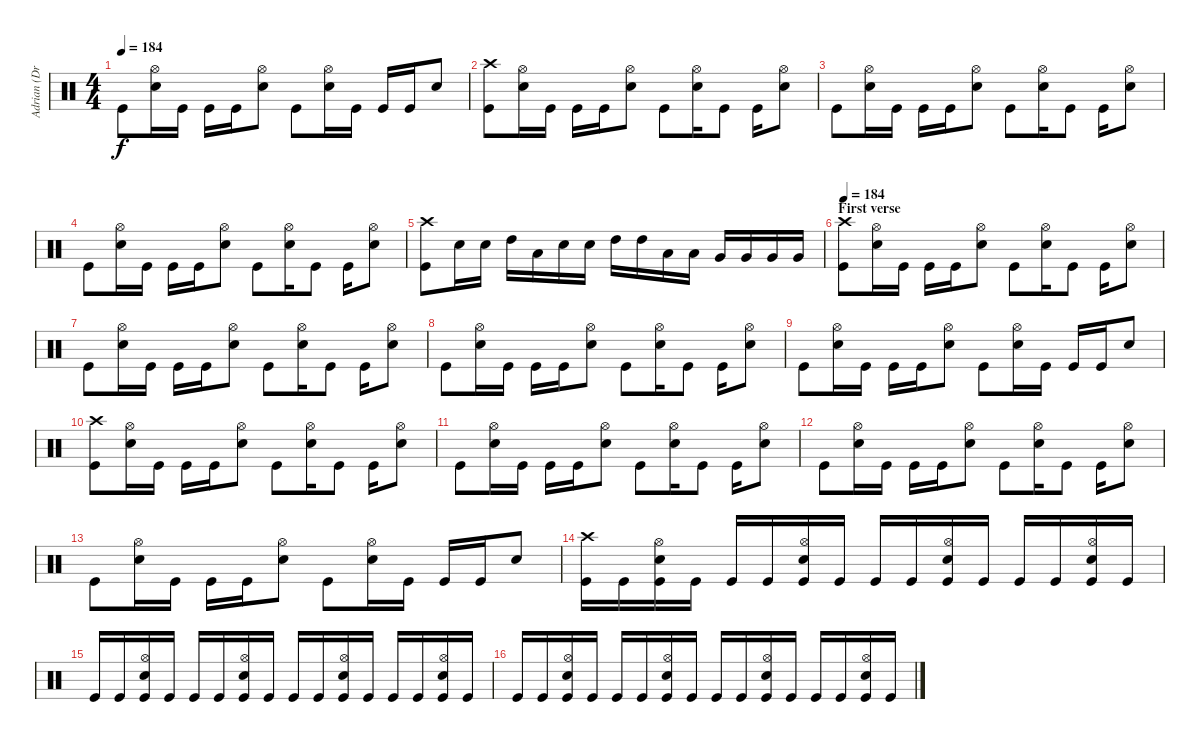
\track ("Adrian (Drums)" "Adrian (Dr") {instrument percussion}
\staff {score}
\articulation defaults
\ts (4 4)
\tempo 184
\clef neutral
\ks c "Kick (hit)".8{dy f}
("Hi-Hat (open)" "Electric Snare (hit)").16 "Kick (hit)".16 "Kick (hit)".16 "Kick (hit)".16 ("Hi-Hat (open)" "Electric Snare (hit)").8 "Kick (hit)".8 ("Hi-Hat (open)" "Electric Snare (hit)").16 "Kick (hit)".16 "Kick (hit)".16 "Kick (hit)".16 "Electric Snare (hit)".8 |
("Crash high (hit)" "Kick (hit)").8 ("Hi-Hat (open)" "Electric Snare (hit)").16 "Kick (hit)".16 "Kick (hit)".16 "Kick (hit)".16 ("Hi-Hat (open)" "Electric Snare (hit)").8 "Kick (hit)".8 ("Hi-Hat (open)" "Electric Snare (hit)").16 "Kick (hit)".8 "Kick (hit)".16 ("Hi-Hat (open)" "Electric Snare (hit)").8 |
"Kick (hit)".8 ("Hi-Hat (open)" "Electric Snare (hit)").16 "Kick (hit)".16 "Kick (hit)".16 "Kick (hit)".16 ("Hi-Hat (open)" "Electric Snare (hit)").8 "Kick (hit)".8 ("Hi-Hat (open)" "Electric Snare (hit)").16 "Kick (hit)".8 "Kick (hit)".16 ("Hi-Hat (open)" "Electric Snare (hit)").8 |
"Kick (hit)".8 ("Hi-Hat (open)" "Electric Snare (hit)").16 "Kick (hit)".16 "Kick (hit)".16 "Kick (hit)".16 ("Hi-Hat (open)" "Electric Snare (hit)").8 "Kick (hit)".8 ("Hi-Hat (open)" "Electric Snare (hit)").16 "Kick (hit)".8 "Kick (hit)".16 ("Hi-Hat (open)" "Electric Snare (hit)").8 |
("Crash high (hit)" "Kick (hit)").8 "Electric Snare (hit)".16 "Electric Snare (hit)".16 "High Tom (hit)".16 "Low Tom (hit)".16 "Electric Snare (hit)".16 "Electric Snare (hit)".16 "High Tom (hit)".16 "High Tom (hit)".16 "Low Tom (hit)".16 "Low Tom (hit)".16 "Very Low Tom (hit)".16 "Very Low Tom (hit)".16 "Very Low Tom (hit)".16 "Very Low Tom (hit)".16 |
\section ("" "First verse")
\tempo 184
("Crash high (hit)" "Kick (hit)").8 ("Hi-Hat (open)" "Electric Snare (hit)").16 "Kick (hit)".16 "Kick (hit)".16 "Kick (hit)".16 ("Hi-Hat (open)" "Electric Snare (hit)").8 "Kick (hit)".8 ("Hi-Hat (open)" "Electric Snare (hit)").16 "Kick (hit)".8 "Kick (hit)".16 ("Hi-Hat (open)" "Electric Snare (hit)").8 |
"Kick (hit)".8 ("Hi-Hat (open)" "Electric Snare (hit)").16 "Kick (hit)".16 "Kick (hit)".16 "Kick (hit)".16 ("Hi-Hat (open)" "Electric Snare (hit)").8 "Kick (hit)".8 ("Hi-Hat (open)" "Electric Snare (hit)").16 "Kick (hit)".8 "Kick (hit)".16 ("Hi-Hat (open)" "Electric Snare (hit)").8 |
"Kick (hit)".8 ("Hi-Hat (open)" "Electric Snare (hit)").16 "Kick (hit)".16 "Kick (hit)".16 "Kick (hit)".16 ("Hi-Hat (open)" "Electric Snare (hit)").8 "Kick (hit)".8 ("Hi-Hat (open)" "Electric Snare (hit)").16 "Kick (hit)".8 "Kick (hit)".16 ("Hi-Hat (open)" "Electric Snare (hit)").8 |
"Kick (hit)".8 ("Hi-Hat (open)" "Electric Snare (hit)").16 "Kick (hit)".16 "Kick (hit)".16 "Kick (hit)".16 ("Hi-Hat (open)" "Electric Snare (hit)").8 "Kick (hit)".8 ("Hi-Hat (open)" "Electric Snare (hit)").16 "Kick (hit)".16 "Kick (hit)".16 "Kick (hit)".16 "Electric Snare (hit)".8 |
("Crash high (hit)" "Kick (hit)").8 ("Hi-Hat (open)" "Electric Snare (hit)").16 "Kick (hit)".16 "Kick (hit)".16 "Kick (hit)".16 ("Hi-Hat (open)" "Electric Snare (hit)").8 "Kick (hit)".8 ("Hi-Hat (open)" "Electric Snare (hit)").16 "Kick (hit)".8 "Kick (hit)".16 ("Hi-Hat (open)" "Electric Snare (hit)").8 |
"Kick (hit)".8 ("Hi-Hat (open)" "Electric Snare (hit)").16 "Kick (hit)".16 "Kick (hit)".16 "Kick (hit)".16 ("Hi-Hat (open)" "Electric Snare (hit)").8 "Kick (hit)".8 ("Hi-Hat (open)" "Electric Snare (hit)").16 "Kick (hit)".8 "Kick (hit)".16 ("Hi-Hat (open)" "Electric Snare (hit)").8 |
"Kick (hit)".8 ("Hi-Hat (open)" "Electric Snare (hit)").16 "Kick (hit)".16 "Kick (hit)".16 "Kick (hit)".16 ("Hi-Hat (open)" "Electric Snare (hit)").8 "Kick (hit)".8 ("Hi-Hat (open)" "Electric Snare (hit)").16 "Kick (hit)".8 "Kick (hit)".16 ("Hi-Hat (open)" "Electric Snare (hit)").8 |
"Kick (hit)".8 ("Hi-Hat (open)" "Electric Snare (hit)").16 "Kick (hit)".16 "Kick (hit)".16 "Kick (hit)".16 ("Hi-Hat (open)" "Electric Snare (hit)").8 "Kick (hit)".8 ("Hi-Hat (open)" "Electric Snare (hit)").16 "Kick (hit)".16 "Kick (hit)".16 "Kick (hit)".16 "Electric Snare (hit)".8 |
("Crash high (hit)" "Kick (hit)").16 "Kick (hit)".16 ("Hi-Hat (open)" "Electric Snare (hit)" "Kick (hit)").16 "Kick (hit)".16 "Kick (hit)".16 "Kick (hit)".16 ("Hi-Hat (open)" "Electric Snare (hit)" "Kick (hit)").16 "Kick (hit)".16 "Kick (hit)".16 "Kick (hit)".16 ("Hi-Hat (open)" "Electric Snare (hit)" "Kick (hit)").16 "Kick (hit)".16 "Kick (hit)".16 "Kick (hit)".16 ("Hi-Hat (open)" "Electric Snare (hit)" "Kick (hit)").16 "Kick (hit)".16 |
"Kick (hit)".16 "Kick (hit)".16 ("Hi-Hat (open)" "Electric Snare (hit)" "Kick (hit)").16 "Kick (hit)".16 "Kick (hit)".16 "Kick (hit)".16 ("Hi-Hat (open)" "Electric Snare (hit)" "Kick (hit)").16 "Kick (hit)".16 "Kick (hit)".16 "Kick (hit)".16 ("Hi-Hat (open)" "Electric Snare (hit)" "Kick (hit)").16 "Kick (hit)".16 "Kick (hit)".16 "Kick (hit)".16 ("Hi-Hat (open)" "Electric Snare (hit)" "Kick (hit)").16 "Kick (hit)".16 |
"Kick (hit)".16 "Kick (hit)".16 ("Hi-Hat (open)" "Electric Snare (hit)" "Kick (hit)").16 "Kick (hit)".16 "Kick (hit)".16 "Kick (hit)".16 ("Hi-Hat (open)" "Electric Snare (hit)" "Kick (hit)").16 "Kick (hit)".16 "Kick (hit)".16 "Kick (hit)".16 ("Hi-Hat (open)" "Electric Snare (hit)" "Kick (hit)").16 "Kick (hit)".16 "Kick (hit)".16 "Kick (hit)".16 ("Hi-Hat (open)" "Electric Snare (hit)" "Kick (hit)").16 "Kick (hit)".16
